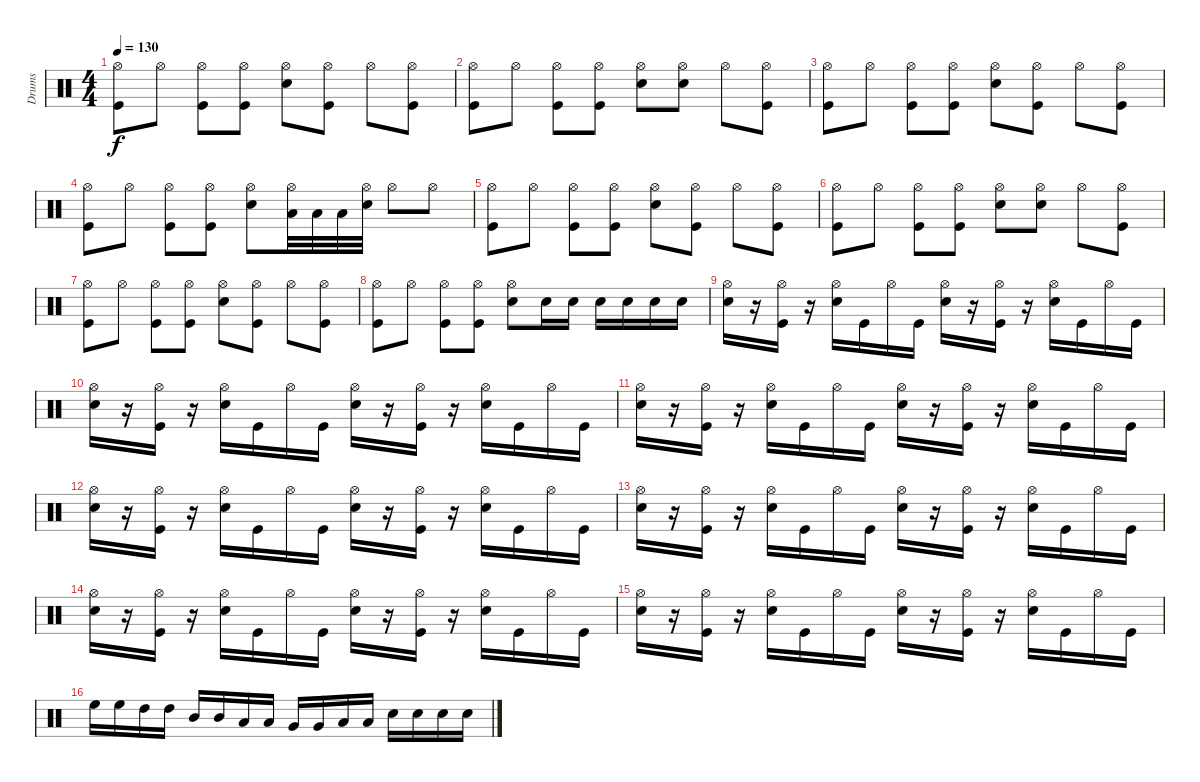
\track ("Drums" "Drums") {instrument percussion}
\staff {score}
\articulation defaults
\ts (4 4)
\tempo 130
\clef neutral
\ks c
("Hi-Hat (open)" "Kick (hit)").8{dy f} "Hi-Hat (open)".8 ("Hi-Hat (open)" "Kick (hit)").8 ("Hi-Hat (open)" "Kick (hit)").8 ("Hi-Hat (open)" "Snare (hit) 2").8 ("Hi-Hat (open)" "Kick (hit)").8 "Hi-Hat (open)".8 ("Hi-Hat (open)" "Kick (hit)").8 |
("Hi-Hat (open)" "Kick (hit)").8 "Hi-Hat (open)".8 ("Hi-Hat (open)" "Kick (hit)").8 ("Hi-Hat (open)" "Kick (hit)").8 ("Hi-Hat (open)" "Snare (hit) 2").8 ("Hi-Hat (open)" "Snare (hit) 2").8 "Hi-Hat (open)".8 ("Hi-Hat (open)" "Kick (hit)").8 |
("Hi-Hat (open)" "Kick (hit)").8 "Hi-Hat (open)".8 ("Hi-Hat (open)" "Kick (hit)").8 ("Hi-Hat (open)" "Kick (hit)").8 ("Hi-Hat (open)" "Snare (hit) 2").8 ("Hi-Hat (open)" "Kick (hit)").8 "Hi-Hat (open)".8 ("Hi-Hat (open)" "Kick (hit)").8 |
("Hi-Hat (open)" "Kick (hit)").8 "Hi-Hat (open)".8 ("Hi-Hat (open)" "Kick (hit)").8 ("Hi-Hat (open)" "Kick (hit)").8 ("Hi-Hat (open)" "Snare (hit) 2").8 ("Hi-Hat (open)" "Low Floor Tom (hit)").32 "Low Floor Tom (hit)".32 "Low Floor Tom (hit)".32 ("Hi-Hat (open)" "Snare (hit) 2").32 "Hi-Hat (open)".8 "Hi-Hat (open)".8 |
("Hi-Hat (open)" "Kick (hit)").8 "Hi-Hat (open)".8 ("Hi-Hat (open)" "Kick (hit)").8 ("Hi-Hat (open)" "Kick (hit)").8 ("Hi-Hat (open)" "Snare (hit) 2").8 ("Hi-Hat (open)" "Kick (hit)").8 "Hi-Hat (open)".8 ("Hi-Hat (open)" "Kick (hit)").8 |
("Hi-Hat (open)" "Kick (hit)").8 "Hi-Hat (open)".8 ("Hi-Hat (open)" "Kick (hit)").8 ("Hi-Hat (open)" "Kick (hit)").8 ("Hi-Hat (open)" "Snare (hit) 2").8 ("Hi-Hat (open)" "Snare (hit) 2").8 "Hi-Hat (open)".8 ("Hi-Hat (open)" "Kick (hit)").8 |
("Hi-Hat (open)" "Kick (hit)").8 "Hi-Hat (open)".8 ("Hi-Hat (open)" "Kick (hit)").8 ("Hi-Hat (open)" "Kick (hit)").8 ("Hi-Hat (open)" "Snare (hit) 2").8 ("Hi-Hat (open)" "Kick (hit)").8 "Hi-Hat (open)".8 ("Hi-Hat (open)" "Kick (hit)").8 |
("Hi-Hat (open)" "Kick (hit)").8 "Hi-Hat (open)".8 ("Hi-Hat (open)" "Kick (hit)").8 ("Hi-Hat (open)" "Kick (hit)").8 ("Hi-Hat (open)" "Snare (hit) 2").8 "Snare (hit) 2".16 "Snare (hit) 2".16 "Snare (hit) 2".16 "Snare (hit) 2".16 "Snare (hit) 2".16 "Snare (hit) 2".16 |
("Hi-Hat (open)" "Snare (hit) 2").16 r.16 ("Hi-Hat (open)" "Kick (hit)").16 r.16 ("Hi-Hat (open)" "Snare (hit) 2").16 "Kick (hit)".16 "Hi-Hat (open)".16 "Kick (hit)".16 ("Hi-Hat (open)" "Snare (hit) 2").16 r.16 ("Hi-Hat (open)" "Kick (hit)").16 r.16 ("Hi-Hat (open)" "Snare (hit) 2").16 "Kick (hit)".16 "Hi-Hat (open)".16 "Kick (hit)".16 |
("Hi-Hat (open)" "Snare (hit) 2").16 r.16 ("Hi-Hat (open)" "Kick (hit)").16 r.16 ("Hi-Hat (open)" "Snare (hit) 2").16 "Kick (hit)".16 "Hi-Hat (open)".16 "Kick (hit)".16 ("Hi-Hat (open)" "Snare (hit) 2").16 r.16 ("Hi-Hat (open)" "Kick (hit)").16 r.16 ("Hi-Hat (open)" "Snare (hit) 2").16 "Kick (hit)".16 "Hi-Hat (open)".16 "Kick (hit)".16 |
("Hi-Hat (open)" "Snare (hit) 2").16 r.16 ("Hi-Hat (open)" "Kick (hit)").16 r.16 ("Hi-Hat (open)" "Snare (hit) 2").16 "Kick (hit)".16 "Hi-Hat (open)".16 "Kick (hit)".16 ("Hi-Hat (open)" "Snare (hit) 2").16 r.16 ("Hi-Hat (open)" "Kick (hit)").16 r.16 ("Hi-Hat (open)" "Snare (hit) 2").16 "Kick (hit)".16 "Hi-Hat (open)".16 "Kick (hit)".16 |
("Hi-Hat (open)" "Snare (hit) 2").16 r.16 ("Hi-Hat (open)" "Kick (hit)").16 r.16 ("Hi-Hat (open)" "Snare (hit) 2").16 "Kick (hit)".16 "Hi-Hat (open)".16 "Kick (hit)".16 ("Hi-Hat (open)" "Snare (hit) 2").16 r.16 ("Hi-Hat (open)" "Kick (hit)").16 r.16 ("Hi-Hat (open)" "Snare (hit) 2").16 "Kick (hit)".16 "Hi-Hat (open)".16 "Kick (hit)".16 |
("Hi-Hat (open)" "Snare (hit) 2").16 r.16 ("Hi-Hat (open)" "Kick (hit)").16 r.16 ("Hi-Hat (open)" "Snare (hit) 2").16 "Kick (hit)".16 "Hi-Hat (open)".16 "Kick (hit)".16 ("Hi-Hat (open)" "Snare (hit) 2").16 r.16 ("Hi-Hat (open)" "Kick (hit)").16 r.16 ("Hi-Hat (open)" "Snare (hit) 2").16 "Kick (hit)".16 "Hi-Hat (open)".16 "Kick (hit)".16 |
("Hi-Hat (open)" "Snare (hit) 2").16 r.16 ("Hi-Hat (open)" "Kick (hit)").16 r.16 ("Hi-Hat (open)" "Snare (hit) 2").16 "Kick (hit)".16 "Hi-Hat (open)".16 "Kick (hit)".16 ("Hi-Hat (open)" "Snare (hit) 2").16 r.16 ("Hi-Hat (open)" "Kick (hit)").16 r.16 ("Hi-Hat (open)" "Snare (hit) 2").16 "Kick (hit)".16 "Hi-Hat (open)".16 "Kick (hit)".16 |
("Hi-Hat (open)" "Snare (hit) 2").16 r.16 ("Hi-Hat (open)" "Kick (hit)").16 r.16 ("Hi-Hat (open)" "Snare (hit) 2").16 "Kick (hit)".16 "Hi-Hat (open)".16 "Kick (hit)".16 ("Hi-Hat (open)" "Snare (hit) 2").16 r.16 ("Hi-Hat (open)" "Kick (hit)").16 r.16 ("Hi-Hat (open)" "Snare (hit) 2").16 "Kick (hit)".16 "Hi-Hat (open)".16 "Kick (hit)".16 |
"High Floor Tom (hit)".16 "High Floor Tom (hit)".16 "High Tom (hit)".16 "High Tom (hit)".16 "Mid Tom (hit)".16 "Mid Tom (hit)".16 "Low Tom (hit)".16 "Low Tom (hit)".16 "Very Low Tom (hit)".16 "Very Low Tom (hit)".16 "Low Floor Tom (hit)".16 "Low Floor Tom (hit)".16 "Snare (hit) 2".16 "Snare (hit) 2".16 "Snare (hit) 2".16 "Snare (hit) 2".16
